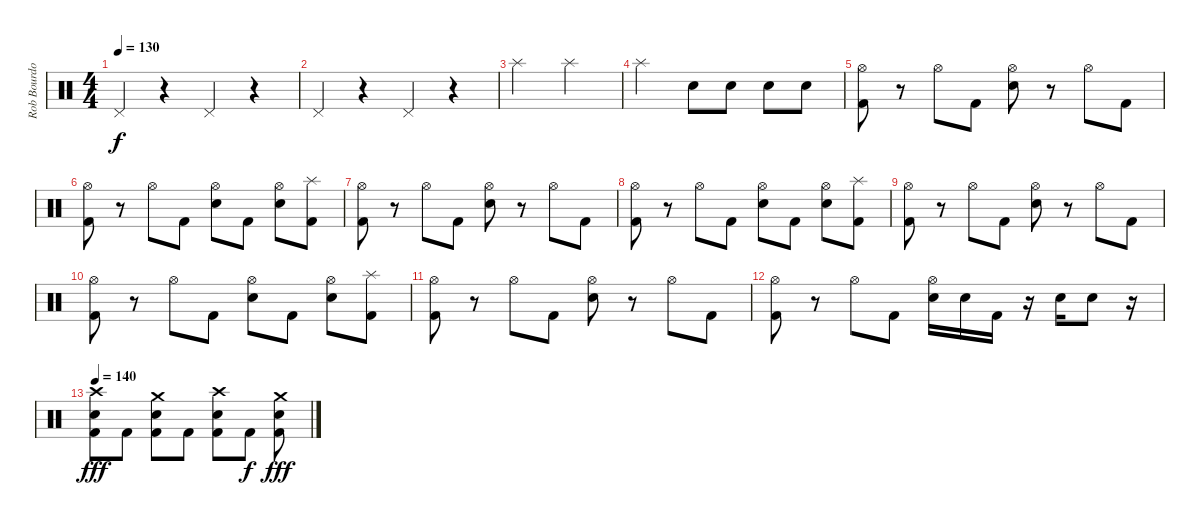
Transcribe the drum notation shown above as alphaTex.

\track ("Rob Bourdon" "Rob Bourdo") {instrument percussion}
\staff {score}
\articulation defaults
\ts (4 4)
\tempo 130
\clef neutral
\ks c "Pedal Hi-Hat (hit)".4{dy f}
r.4 "Pedal Hi-Hat (hit)".4 r.4 |
"Pedal Hi-Hat (hit)".4 r.4 "Pedal Hi-Hat (hit)".4 r.4 |
"Splash (hit)".2 "Splash (hit)".2 |
"Splash (hit)".2 "Snare (hit) 2".8 "Snare (hit) 2".8 "Snare (hit) 2".8 "Snare (hit) 2".8 |
("Hi-Hat (open)" "Kick (hit) 2").8 r.8 "Hi-Hat (open)".8 "Kick (hit) 2".8 ("Hi-Hat (open)" "Snare (hit) 2").8 r.8 "Hi-Hat (open)".8 "Kick (hit) 2".8 |
("Hi-Hat (open)" "Kick (hit) 2").8 r.8 "Hi-Hat (open)".8 "Kick (hit) 2".8 ("Hi-Hat (open)" "Snare (hit) 2").8 "Kick (hit) 2".8 ("Hi-Hat (open)" "Snare (hit) 2").8 ("Splash (hit)" "Kick (hit) 2").8 |
("Hi-Hat (open)" "Kick (hit) 2").8 r.8 "Hi-Hat (open)".8 "Kick (hit) 2".8 ("Hi-Hat (open)" "Snare (hit) 2").8 r.8 "Hi-Hat (open)".8 "Kick (hit) 2".8 |
("Hi-Hat (open)" "Kick (hit) 2").8 r.8 "Hi-Hat (open)".8 "Kick (hit) 2".8 ("Hi-Hat (open)" "Snare (hit) 2").8 "Kick (hit) 2".8 ("Hi-Hat (open)" "Snare (hit) 2").8 ("Splash (hit)" "Kick (hit) 2").8 |
("Hi-Hat (open)" "Kick (hit) 2").8 r.8 "Hi-Hat (open)".8 "Kick (hit) 2".8 ("Hi-Hat (open)" "Snare (hit) 2").8 r.8 "Hi-Hat (open)".8 "Kick (hit) 2".8 |
("Hi-Hat (open)" "Kick (hit) 2").8 r.8 "Hi-Hat (open)".8 "Kick (hit) 2".8 ("Hi-Hat (open)" "Snare (hit) 2").8 "Kick (hit) 2".8 ("Hi-Hat (open)" "Snare (hit) 2").8 ("Splash (hit)" "Kick (hit) 2").8 |
("Hi-Hat (open)" "Kick (hit) 2").8 r.8 "Hi-Hat (open)".8 "Kick (hit) 2".8 ("Hi-Hat (open)" "Snare (hit) 2").8 r.8 "Hi-Hat (open)".8 "Kick (hit) 2".8 |
("Hi-Hat (open)" "Kick (hit) 2").8 r.8 "Hi-Hat (open)".8 "Kick (hit) 2".8 ("Hi-Hat (open)" "Snare (hit) 2").16 "Snare (hit) 2".16 "Kick (hit) 2".16 r.16 "Snare (hit) 2".16 "Snare (hit) 2".8 r.16 |
\tempo 140
("Crash high (hit)" "Snare (hit) 2" "Kick (hit) 2").8{dy fff} "Kick (hit) 2".8 ("Crash medium (hit)" "Snare (hit) 2" "Kick (hit) 2").8 "Kick (hit) 2".8 ("Crash high (hit)" "Snare (hit) 2" "Kick (hit) 2").8 "Kick (hit) 2".8{dy f} ("Crash medium (hit)" "Snare (hit) 2" "Kick (hit) 2").8{dy fff}
